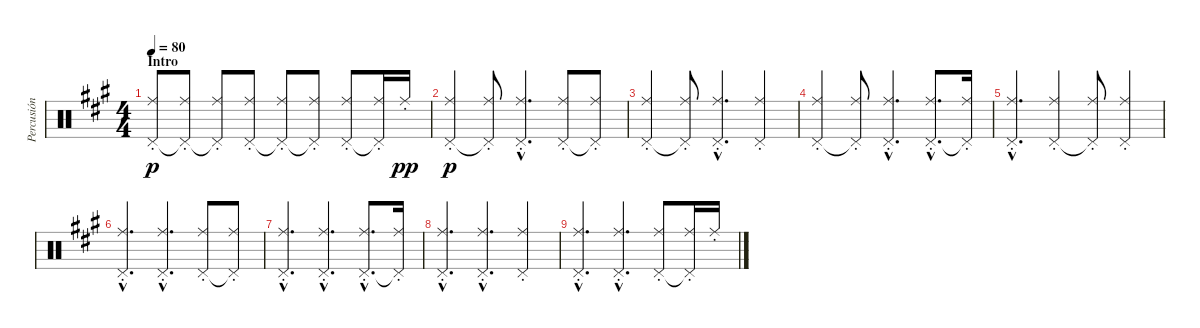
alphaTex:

\track ("Percusión" "Percusión") {instrument percussion}
\staff {score}
\articulation defaults
\ts (4 4)
\section ("" "Intro")
\tempo 80
\clef neutral
\ks a
("Ride (middle)"{st} "Pedal Hi-Hat (hit)").8{dy p} ("Ride (middle)"{st} "Pedal Hi-Hat (hit)"{t}).8 ("Ride (middle)"{st} "Pedal Hi-Hat (hit)"{t}).8 ("Ride (middle)"{st} "Pedal Hi-Hat (hit)").8 ("Ride (middle)"{st} "Pedal Hi-Hat (hit)"{t}).8 ("Ride (middle)"{st} "Pedal Hi-Hat (hit)"{t}).8 ("Ride (middle)"{st} "Pedal Hi-Hat (hit)").8 ("Ride (middle)"{st} "Pedal Hi-Hat (hit)"{t}).16 "Ride (middle)"{st}.16{dy pp} |
("Ride (middle)"{st} "Pedal Hi-Hat (hit)").4{dy p} ("Ride (middle)"{st} "Pedal Hi-Hat (hit)"{t}).8 ("Ride (middle)"{hac st} "Pedal Hi-Hat (hit)"{hac}).4{d} ("Ride (middle)"{st} "Pedal Hi-Hat (hit)").8 ("Ride (middle)"{st} "Pedal Hi-Hat (hit)"{t}).8 |
("Ride (middle)"{st} "Pedal Hi-Hat (hit)").4 ("Ride (middle)"{st} "Pedal Hi-Hat (hit)"{t}).8 ("Ride (middle)"{hac st} "Pedal Hi-Hat (hit)"{hac}).4{d} ("Ride (middle)"{st} "Pedal Hi-Hat (hit)").4 |
("Ride (middle)"{st} "Pedal Hi-Hat (hit)").4 ("Ride (middle)"{st} "Pedal Hi-Hat (hit)"{t}).8 ("Ride (middle)"{hac st} "Pedal Hi-Hat (hit)"{hac}).4{d} ("Ride (middle)"{hac st} "Pedal Hi-Hat (hit)"{hac}).8{d} ("Ride (middle)"{st} "Pedal Hi-Hat (hit)"{t}).16 |
("Ride (middle)"{hac st} "Pedal Hi-Hat (hit)"{hac}).4{d} ("Ride (middle)"{st} "Pedal Hi-Hat (hit)").4 ("Ride (middle)"{st} "Pedal Hi-Hat (hit)"{t}).8 ("Ride (middle)"{st} "Pedal Hi-Hat (hit)").4 |
("Ride (middle)"{hac st} "Pedal Hi-Hat (hit)"{hac}).4{d} ("Ride (middle)"{hac st} "Pedal Hi-Hat (hit)"{hac}).4{d} ("Ride (middle)"{st} "Pedal Hi-Hat (hit)").8 ("Ride (middle)"{st} "Pedal Hi-Hat (hit)"{t}).8 |
("Ride (middle)"{hac st} "Pedal Hi-Hat (hit)"{hac}).4{d} ("Ride (middle)"{hac st} "Pedal Hi-Hat (hit)"{hac}).4{d} ("Ride (middle)"{hac st} "Pedal Hi-Hat (hit)"{hac}).8{d} ("Ride (middle)"{st} "Pedal Hi-Hat (hit)"{t}).16 |
("Ride (middle)"{hac st} "Pedal Hi-Hat (hit)"{hac}).4{d} ("Ride (middle)"{hac st} "Pedal Hi-Hat (hit)"{hac}).4{d} ("Ride (middle)"{st} "Pedal Hi-Hat (hit)").4 |
("Ride (middle)"{hac st} "Pedal Hi-Hat (hit)"{hac}).4{d} ("Ride (middle)"{hac st} "Pedal Hi-Hat (hit)"{hac}).4{d} ("Ride (middle)"{st} "Pedal Hi-Hat (hit)").8 ("Ride (middle)"{st} "Pedal Hi-Hat (hit)"{t}).16 "Ride (middle)"{st}.16
